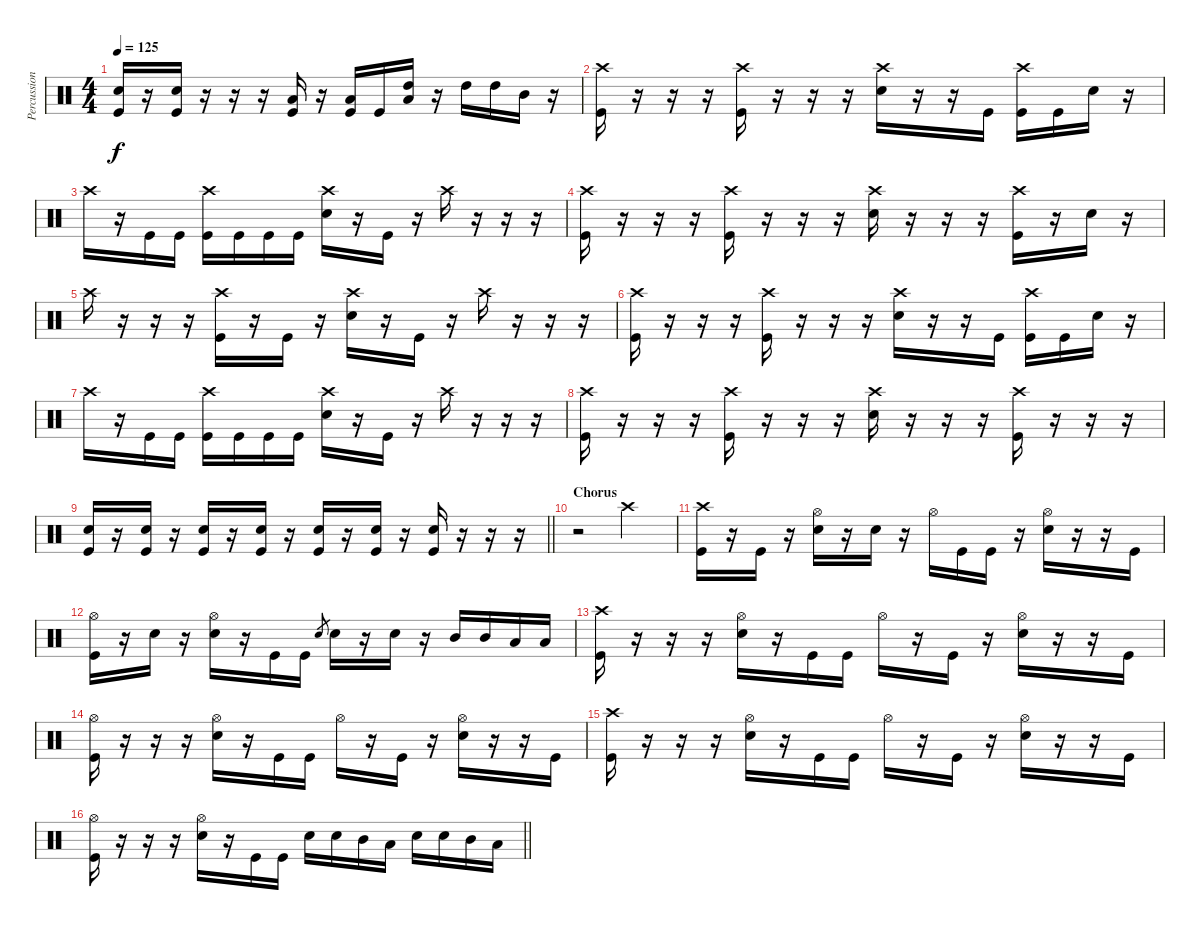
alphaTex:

\track ("Percussion" "Percussion") {instrument percussion}
\staff {score}
\articulation defaults
\ts (4 4)
\tempo 125
\clef neutral
\ks c
("Electric Snare (hit)" "Kick (hit)").16{dy f} r.16 ("Electric Snare (hit)" "Kick (hit)").16 r.16 r.16 r.16 ("Low Floor Tom (hit)" "Kick (hit)").16 r.16 ("Low Floor Tom (hit)" "Kick (hit)").16 "Kick (hit)".16 ("High Tom (hit)" "Low Floor Tom (hit)").16 r.16 "High Tom (hit)".16 "High Tom (hit)".16 "Mid Tom (hit)".16 r.16 |
("Crash high (hit)" "Kick (hit)").16 r.16 r.16 r.16 ("Crash high (hit)" "Kick (hit)").16 r.16 r.16 r.16 ("Crash high (hit)" "Electric Snare (hit)").16 r.16 r.16 "Kick (hit)".16 ("Crash high (hit)" "Kick (hit)").16 "Kick (hit)".16 "Electric Snare (hit)".16 r.16 |
"Crash high (hit)".16 r.16 "Kick (hit)".16 "Kick (hit)".16 ("Crash high (hit)" "Kick (hit)").16 "Kick (hit)".16 "Kick (hit)".16 "Kick (hit)".16 ("Crash high (hit)" "Electric Snare (hit)").16 r.16 "Kick (hit)".16 r.16 "Crash high (hit)".16 r.16 r.16 r.16 |
("Crash high (hit)" "Kick (hit)").16 r.16 r.16 r.16 ("Crash high (hit)" "Kick (hit)").16 r.16 r.16 r.16 ("Crash high (hit)" "Electric Snare (hit)").16 r.16 r.16 r.16 ("Crash high (hit)" "Kick (hit)").16 r.16 "Electric Snare (hit)".16 r.16 |
"Crash high (hit)".16 r.16 r.16 r.16 ("Crash high (hit)" "Kick (hit)").16 r.16 "Kick (hit)".16 r.16 ("Crash high (hit)" "Electric Snare (hit)").16 r.16 "Kick (hit)".16 r.16 "Crash high (hit)".16 r.16 r.16 r.16 |
("Crash high (hit)" "Kick (hit)").16 r.16 r.16 r.16 ("Crash high (hit)" "Kick (hit)").16 r.16 r.16 r.16 ("Crash high (hit)" "Electric Snare (hit)").16 r.16 r.16 "Kick (hit)".16 ("Crash high (hit)" "Kick (hit)").16 "Kick (hit)".16 "Electric Snare (hit)".16 r.16 |
"Crash high (hit)".16 r.16 "Kick (hit)".16 "Kick (hit)".16 ("Crash high (hit)" "Kick (hit)").16 "Kick (hit)".16 "Kick (hit)".16 "Kick (hit)".16 ("Crash high (hit)" "Electric Snare (hit)").16 r.16 "Kick (hit)".16 r.16 "Crash high (hit)".16 r.16 r.16 r.16 |
("Crash high (hit)" "Kick (hit)").16 r.16 r.16 r.16 ("Crash high (hit)" "Kick (hit)").16 r.16 r.16 r.16 ("Crash high (hit)" "Electric Snare (hit)").16 r.16 r.16 r.16 ("Crash high (hit)" "Kick (hit)").16 r.16 r.16 r.16 |
\barLineRight lightlight
("Electric Snare (hit)" "Kick (hit)").16 r.16 ("Electric Snare (hit)" "Kick (hit)").16 r.16 ("Electric Snare (hit)" "Kick (hit)").16 r.16 ("Electric Snare (hit)" "Kick (hit)").16 r.16 ("Electric Snare (hit)" "Kick (hit)").16 r.16 ("Electric Snare (hit)" "Kick (hit)").16 r.16 ("Electric Snare (hit)" "Kick (hit)").16 r.16 r.16 r.16 |
\section ("" "Chorus")
r.2{volume 0} "Crash high (hit)".2{volume 13} |
("Crash high (hit)" "Kick (hit)").16 r.16 "Kick (hit)".16 r.16 ("Hi-Hat (open)" "Electric Snare (hit)").16 r.16 "Electric Snare (hit)".16 r.16 "Hi-Hat (open)".16 "Kick (hit)".16 "Kick (hit)".16 r.16 ("Hi-Hat (open)" "Electric Snare (hit)").16 r.16 r.16 "Kick (hit)".16 |
("Hi-Hat (open)" "Kick (hit)").16 r.16 "Electric Snare (hit)".16 r.16 ("Hi-Hat (open)" "Electric Snare (hit)").16 r.16 "Kick (hit)".16 "Kick (hit)".16 "Electric Snare (hit)".8{gr} "Electric Snare (hit)".16 r.16 "Electric Snare (hit)".16 r.16 "Mid Tom (hit)".16 "Mid Tom (hit)".16 "Low Tom (hit)".16 "Low Tom (hit)".16 |
("Crash high (hit)" "Kick (hit)").16 r.16 r.16 r.16 ("Hi-Hat (open)" "Electric Snare (hit)").16 r.16 "Kick (hit)".16 "Kick (hit)".16 "Hi-Hat (open)".16 r.16 "Kick (hit)".16 r.16 ("Hi-Hat (open)" "Electric Snare (hit)").16 r.16 r.16 "Kick (hit)".16 |
("Hi-Hat (open)" "Kick (hit)").16 r.16 r.16 r.16 ("Hi-Hat (open)" "Electric Snare (hit)").16 r.16 "Kick (hit)".16 "Kick (hit)".16 "Hi-Hat (open)".16 r.16 "Kick (hit)".16 r.16 ("Hi-Hat (open)" "Electric Snare (hit)").16 r.16 r.16 "Kick (hit)".16 |
("Crash high (hit)" "Kick (hit)").16 r.16 r.16 r.16 ("Hi-Hat (open)" "Electric Snare (hit)").16 r.16 "Kick (hit)".16 "Kick (hit)".16 "Hi-Hat (open)".16 r.16 "Kick (hit)".16 r.16 ("Hi-Hat (open)" "Electric Snare (hit)").16 r.16 r.16 "Kick (hit)".16 |
\barLineRight lightlight
("Hi-Hat (open)" "Kick (hit)").16 r.16 r.16 r.16 ("Hi-Hat (open)" "Electric Snare (hit)").16 r.16 "Kick (hit)".16 "Kick (hit)".16 "Electric Snare (hit)".16 "Electric Snare (hit)".16 "Mid Tom (hit)".16 "Low Tom (hit)".16 "Electric Snare (hit)".16 "Electric Snare (hit)".16 "Mid Tom (hit)".16 "Low Tom (hit)".16
